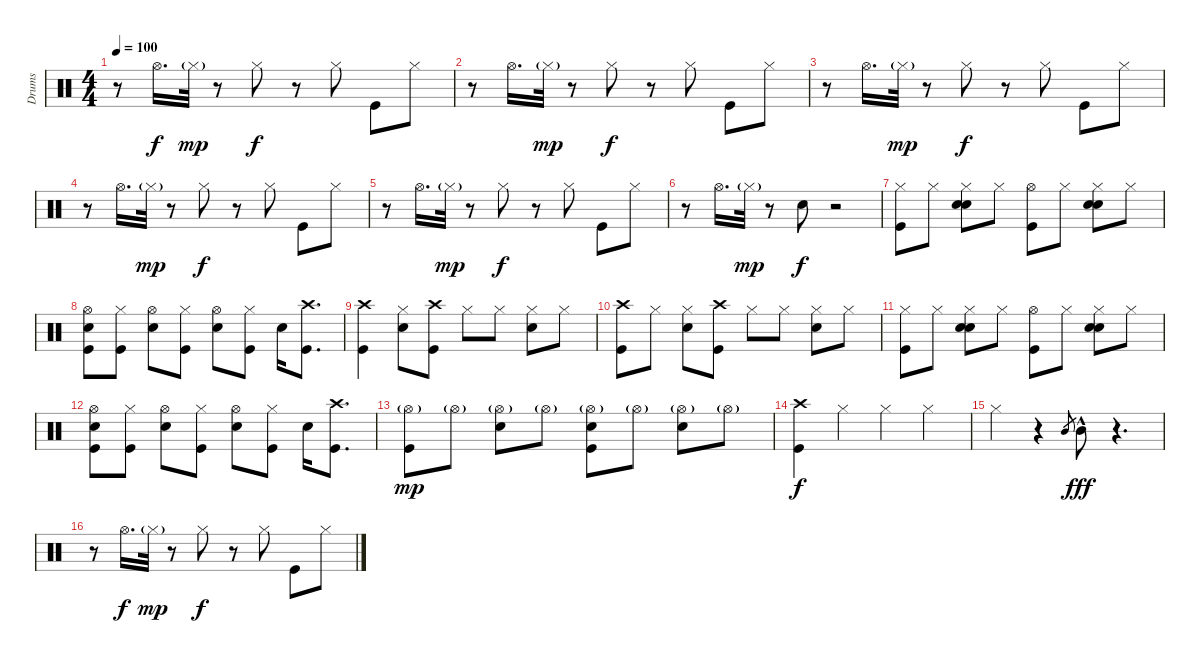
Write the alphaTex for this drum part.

\track ("Drums" "Drums") {instrument percussion}
\staff {score}
\articulation defaults
\ts (4 4)
\tempo 100
\clef neutral
\ks c
r.8{dy f} "Hi-Hat (open)".16{d} "Hi-Hat (closed)"{g}.32{dy mp} r.8 "Hi-Hat (closed)".8{dy f} r.8 "Hi-Hat (closed)".8 "Kick (hit)".8 "Hi-Hat (closed)".8 |
r.8 "Hi-Hat (open)".16{d} "Hi-Hat (closed)"{g}.32{dy mp} r.8 "Hi-Hat (closed)".8{dy f} r.8 "Hi-Hat (closed)".8 "Kick (hit)".8 "Hi-Hat (closed)".8 |
r.8 "Hi-Hat (open)".16{d} "Hi-Hat (closed)"{g}.32{dy mp} r.8 "Hi-Hat (closed)".8{dy f} r.8 "Hi-Hat (closed)".8 "Kick (hit)".8 "Hi-Hat (closed)".8 |
r.8 "Hi-Hat (open)".16{d} "Hi-Hat (closed)"{g}.32{dy mp} r.8 "Hi-Hat (closed)".8{dy f} r.8 "Hi-Hat (closed)".8 "Kick (hit)".8 "Hi-Hat (closed)".8 |
r.8 "Hi-Hat (open)".16{d} "Hi-Hat (closed)"{g}.32{dy mp} r.8 "Hi-Hat (closed)".8{dy f} r.8 "Hi-Hat (closed)".8 "Kick (hit)".8 "Hi-Hat (closed)".8 |
r.8 "Hi-Hat (open)".16{d} "Hi-Hat (closed)"{g}.32{dy mp} r.8 "Snare (hit) 2".8{dy f} r.2 |
("Hi-Hat (closed)" "Kick (hit)").8{volume 12} "Hi-Hat (closed)".8 ("Hi-Hat (closed)" "Hand Clap (hit)" "Snare (hit) 2").8 "Hi-Hat (closed)".8 ("Hi-Hat (open)" "Kick (hit)").8 "Hi-Hat (closed)".8 ("Hi-Hat (closed)" "Hand Clap (hit)" "Snare (hit) 2").8 "Hi-Hat (closed)".8 |
("Hi-Hat (open)" "Hand Clap (hit)" "Kick (hit)").8 ("Hi-Hat (closed)" "Kick (hit)").8 ("Hi-Hat (open)" "Snare (hit) 2").8 ("Hi-Hat (closed)" "Kick (hit)").8 ("Hi-Hat (open)" "Snare (hit) 2").8 ("Hi-Hat (closed)" "Kick (hit)").8 "Snare (hit) 2".16 ("Crash high (hit)" "Kick (hit)").8{d} |
("Crash high (hit)" "Kick (hit)").4 ("Hi-Hat (closed)" "Snare (hit) 2").8 ("Crash high (hit)" "Kick (hit)").8 "Hi-Hat (closed)".8 "Hi-Hat (closed)".8 ("Hi-Hat (closed)" "Snare (hit) 2").8 "Hi-Hat (closed)".8 |
("Crash high (hit)" "Kick (hit)").8 "Hi-Hat (closed)".8 ("Hi-Hat (closed)" "Snare (hit) 2").8 ("Crash high (hit)" "Kick (hit)").8 "Hi-Hat (closed)".8 "Hi-Hat (closed)".8 ("Hi-Hat (closed)" "Snare (hit) 2").8 "Hi-Hat (closed)".8 |
("Hi-Hat (closed)" "Kick (hit)").8 "Hi-Hat (closed)".8 ("Hi-Hat (closed)" "Hand Clap (hit)" "Snare (hit) 2").8 "Hi-Hat (closed)".8 ("Hi-Hat (open)" "Kick (hit)").8 "Hi-Hat (closed)".8 ("Hi-Hat (closed)" "Hand Clap (hit)" "Snare (hit) 2").8 "Hi-Hat (closed)".8 |
("Hi-Hat (open)" "Hand Clap (hit)" "Kick (hit)").8 ("Hi-Hat (closed)" "Kick (hit)").8 ("Hi-Hat (open)" "Snare (hit) 2").8 ("Hi-Hat (closed)" "Kick (hit)").8 ("Hi-Hat (open)" "Snare (hit) 2").8 ("Hi-Hat (closed)" "Kick (hit)").8 "Snare (hit) 2".16 ("Crash high (hit)" "Kick (hit)").8{d} |
("Hi-Hat (open)"{g} "Kick (hit)").8{dy mp} "Hi-Hat (open)"{g}.8 ("Hi-Hat (open)"{g} "Snare (hit) 2").8 "Hi-Hat (open)"{g}.8 ("Hi-Hat (open)"{g} "Snare (hit) 2" "Kick (hit)").8 "Hi-Hat (open)"{g}.8 ("Hi-Hat (open)"{g} "Snare (hit) 2").8 "Hi-Hat (open)"{g}.8 |
("Crash high (hit)" "Kick (hit)").4{dy f} "Hi-Hat (closed)".4 "Hi-Hat (closed)".4 "Hi-Hat (closed)".4 |
"Hi-Hat (closed)".4 r.4 "Mid Tom (hit)".8{gr} "Mid Tom (hit)"{hac}.8{dy fff} r.4{d} |
r.8{volume 11} "Hi-Hat (open)".16{d dy f} "Hi-Hat (closed)"{g}.32{dy mp} r.8 "Hi-Hat (closed)".8{dy f} r.8 "Hi-Hat (closed)".8 "Kick (hit)".8 "Hi-Hat (closed)".8
